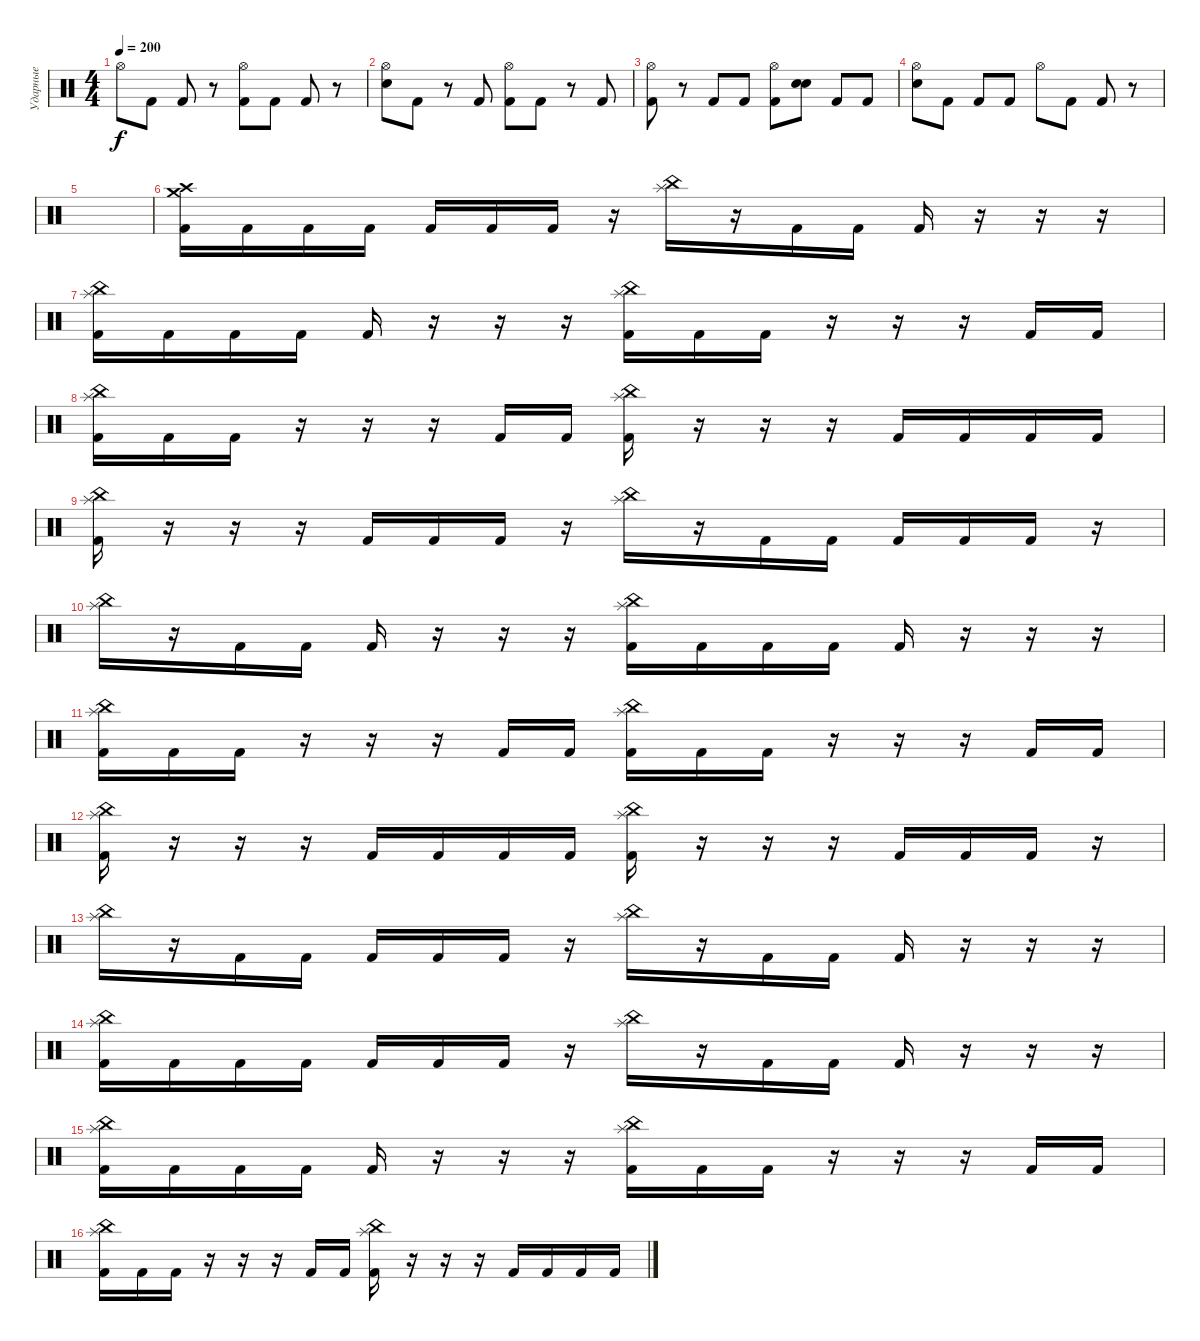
\track ("Ударные" "Ударные") {instrument percussion}
\staff {score}
\articulation defaults
\ts (4 4)
\tempo 200
\clef neutral
\ks c "Hi-Hat (open)".8{dy f} "Kick (hit) 2".8 "Kick (hit) 2".8
r.8 ("Hi-Hat (open)" "Kick (hit) 2").8 "Kick (hit) 2".8 "Kick (hit) 2".8 r.8 |
("Hi-Hat (open)" "Snare (hit) 2").8 "Kick (hit) 2".8 r.8 "Kick (hit) 2".8 ("Hi-Hat (open)" "Kick (hit) 2").8 "Kick (hit) 2".8 r.8 "Kick (hit) 2".8 |
("Hi-Hat (open)" "Kick (hit) 2").8 r.8 "Kick (hit) 2".8 "Kick (hit) 2".8 ("Hi-Hat (open)" "Kick (hit) 2").8 ("Electric Snare (hit)" "Snare (hit) 2").8 "Kick (hit) 2".8 "Kick (hit) 2".8 |
("Hi-Hat (open)" "Snare (hit) 2").8 "Kick (hit) 2".8 "Kick (hit) 2".8 "Kick (hit) 2".8 "Hi-Hat (open)".8 "Kick (hit) 2".8 "Kick (hit) 2".8 r.8 |
|
("Crash high (hit)" "Crash medium (hit)" "Kick (hit) 2").16 "Kick (hit) 2".16 "Kick (hit) 2".16 "Kick (hit) 2".16 "Kick (hit) 2".16 "Kick (hit) 2".16 "Kick (hit) 2".16 r.16 ("Splash (hit)" "China (hit)").16 r.16 "Kick (hit) 2".16 "Kick (hit) 2".16 "Kick (hit) 2".16 r.16 r.16 r.16 |
("Splash (hit)" "China (hit)" "Kick (hit) 2").16 "Kick (hit) 2".16 "Kick (hit) 2".16 "Kick (hit) 2".16 "Kick (hit) 2".16 r.16 r.16 r.16 ("China (hit)" "Splash (hit)" "Kick (hit) 2").16 "Kick (hit) 2".16 "Kick (hit) 2".16 r.16 r.16 r.16 "Kick (hit) 2".16 "Kick (hit) 2".16 |
("China (hit)" "Splash (hit)" "Kick (hit) 2").16 "Kick (hit) 2".16 "Kick (hit) 2".16 r.16 r.16 r.16 "Kick (hit) 2".16 "Kick (hit) 2".16 ("China (hit)" "Splash (hit)" "Kick (hit) 2").16 r.16 r.16 r.16 "Kick (hit) 2".16 "Kick (hit) 2".16 "Kick (hit) 2".16 "Kick (hit) 2".16 |
("China (hit)" "Splash (hit)" "Kick (hit) 2").16 r.16 r.16 r.16 "Kick (hit) 2".16 "Kick (hit) 2".16 "Kick (hit) 2".16 r.16 ("China (hit)" "Splash (hit)").16 r.16 "Kick (hit) 2".16 "Kick (hit) 2".16 "Kick (hit) 2".16 "Kick (hit) 2".16 "Kick (hit) 2".16 r.16 |
("China (hit)" "Splash (hit)").16 r.16 "Kick (hit) 2".16 "Kick (hit) 2".16 "Kick (hit) 2".16 r.16 r.16 r.16 ("China (hit)" "Splash (hit)" "Kick (hit) 2").16 "Kick (hit) 2".16 "Kick (hit) 2".16 "Kick (hit) 2".16 "Kick (hit) 2".16 r.16 r.16 r.16 |
("China (hit)" "Splash (hit)" "Kick (hit) 2").16 "Kick (hit) 2".16 "Kick (hit) 2".16 r.16 r.16 r.16 "Kick (hit) 2".16 "Kick (hit) 2".16 ("China (hit)" "Splash (hit)" "Kick (hit) 2").16 "Kick (hit) 2".16 "Kick (hit) 2".16 r.16 r.16 r.16 "Kick (hit) 2".16 "Kick (hit) 2".16 |
("China (hit)" "Splash (hit)" "Kick (hit) 2").16 r.16 r.16 r.16 "Kick (hit) 2".16 "Kick (hit) 2".16 "Kick (hit) 2".16 "Kick (hit) 2".16 ("China (hit)" "Splash (hit)" "Kick (hit) 2").16 r.16 r.16 r.16 "Kick (hit) 2".16 "Kick (hit) 2".16 "Kick (hit) 2".16 r.16 |
("China (hit)" "Splash (hit)").16 r.16 "Kick (hit) 2".16 "Kick (hit) 2".16 "Kick (hit) 2".16 "Kick (hit) 2".16 "Kick (hit) 2".16 r.16 ("China (hit)" "Splash (hit)").16 r.16 "Kick (hit) 2".16 "Kick (hit) 2".16 "Kick (hit) 2".16 r.16 r.16 r.16 |
("China (hit)" "Splash (hit)" "Kick (hit) 2").16 "Kick (hit) 2".16 "Kick (hit) 2".16 "Kick (hit) 2".16 "Kick (hit) 2".16 "Kick (hit) 2".16 "Kick (hit) 2".16 r.16 ("China (hit)" "Splash (hit)").16 r.16 "Kick (hit) 2".16 "Kick (hit) 2".16 "Kick (hit) 2".16 r.16 r.16 r.16 |
("China (hit)" "Splash (hit)" "Kick (hit) 2").16 "Kick (hit) 2".16 "Kick (hit) 2".16 "Kick (hit) 2".16 "Kick (hit) 2".16 r.16 r.16 r.16 ("China (hit)" "Splash (hit)" "Kick (hit) 2").16 "Kick (hit) 2".16 "Kick (hit) 2".16 r.16 r.16 r.16 "Kick (hit) 2".16 "Kick (hit) 2".16 |
("China (hit)" "Splash (hit)" "Kick (hit) 2").16 "Kick (hit) 2".16 "Kick (hit) 2".16 r.16 r.16 r.16 "Kick (hit) 2".16 "Kick (hit) 2".16 ("China (hit)" "Splash (hit)" "Kick (hit) 2").16 r.16 r.16 r.16 "Kick (hit) 2".16 "Kick (hit) 2".16 "Kick (hit) 2".16 "Kick (hit) 2".16
